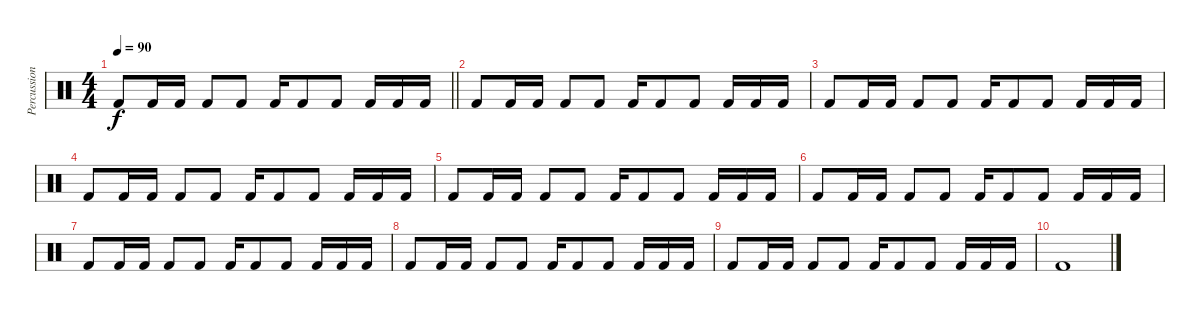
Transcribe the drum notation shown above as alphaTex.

\track ("Percussion" "Percussion") {instrument percussion}
\staff {score}
\articulation defaults
\ts (4 4)
\tempo 90
\clef neutral
\barLineRight lightlight
\ks c "Kick (hit) 2".8{dy f} "Kick (hit) 2".16 "Kick (hit) 2".16 "Kick (hit) 2".8 "Kick (hit) 2".8 "Kick (hit) 2".16 "Kick (hit) 2".8 "Kick (hit) 2".8 "Kick (hit) 2".16 "Kick (hit) 2".16 "Kick (hit) 2".16
|
\section ("" "")
"Kick (hit) 2".8 "Kick (hit) 2".16 "Kick (hit) 2".16 "Kick (hit) 2".8 "Kick (hit) 2".8 "Kick (hit) 2".16 "Kick (hit) 2".8 "Kick (hit) 2".8 "Kick (hit) 2".16 "Kick (hit) 2".16 "Kick (hit) 2".16 |
"Kick (hit) 2".8 "Kick (hit) 2".16 "Kick (hit) 2".16 "Kick (hit) 2".8 "Kick (hit) 2".8 "Kick (hit) 2".16 "Kick (hit) 2".8 "Kick (hit) 2".8 "Kick (hit) 2".16 "Kick (hit) 2".16 "Kick (hit) 2".16 |
"Kick (hit) 2".8 "Kick (hit) 2".16 "Kick (hit) 2".16 "Kick (hit) 2".8 "Kick (hit) 2".8 "Kick (hit) 2".16 "Kick (hit) 2".8 "Kick (hit) 2".8 "Kick (hit) 2".16 "Kick (hit) 2".16 "Kick (hit) 2".16 |
"Kick (hit) 2".8 "Kick (hit) 2".16 "Kick (hit) 2".16 "Kick (hit) 2".8 "Kick (hit) 2".8 "Kick (hit) 2".16 "Kick (hit) 2".8 "Kick (hit) 2".8 "Kick (hit) 2".16 "Kick (hit) 2".16 "Kick (hit) 2".16 |
"Kick (hit) 2".8 "Kick (hit) 2".16 "Kick (hit) 2".16 "Kick (hit) 2".8 "Kick (hit) 2".8 "Kick (hit) 2".16 "Kick (hit) 2".8 "Kick (hit) 2".8 "Kick (hit) 2".16 "Kick (hit) 2".16 "Kick (hit) 2".16 |
"Kick (hit) 2".8 "Kick (hit) 2".16 "Kick (hit) 2".16 "Kick (hit) 2".8 "Kick (hit) 2".8 "Kick (hit) 2".16 "Kick (hit) 2".8 "Kick (hit) 2".8 "Kick (hit) 2".16 "Kick (hit) 2".16 "Kick (hit) 2".16 |
"Kick (hit) 2".8 "Kick (hit) 2".16 "Kick (hit) 2".16 "Kick (hit) 2".8 "Kick (hit) 2".8 "Kick (hit) 2".16 "Kick (hit) 2".8 "Kick (hit) 2".8 "Kick (hit) 2".16 "Kick (hit) 2".16 "Kick (hit) 2".16 |
"Kick (hit) 2".8 "Kick (hit) 2".16 "Kick (hit) 2".16 "Kick (hit) 2".8 "Kick (hit) 2".8 "Kick (hit) 2".16 "Kick (hit) 2".8 "Kick (hit) 2".8 "Kick (hit) 2".16 "Kick (hit) 2".16 "Kick (hit) 2".16 |
"Kick (hit) 2".1{volume 0}
